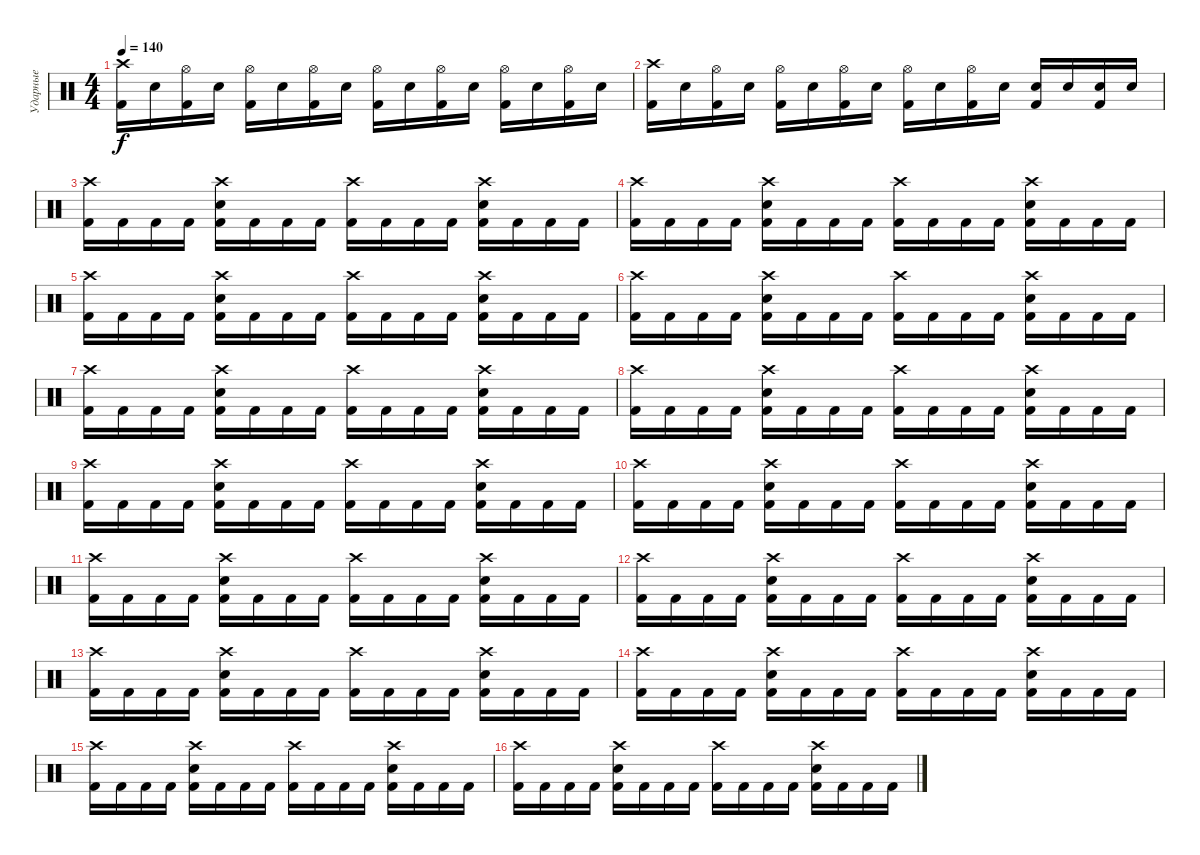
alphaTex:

\track ("Ударные" "Ударные") {mute instrument percussion}
\staff {score}
\articulation defaults
\ts (4 4)
\tempo 140
\clef neutral
\ks c
("Crash high (hit)" "Kick (hit) 2").16{dy f} "Electric Snare (hit)".16 ("Hi-Hat (open)" "Kick (hit) 2").16 "Electric Snare (hit)".16 ("Hi-Hat (open)" "Kick (hit) 2").16 "Electric Snare (hit)".16 ("Hi-Hat (open)" "Kick (hit) 2").16 "Electric Snare (hit)".16 ("Hi-Hat (open)" "Kick (hit) 2").16 "Electric Snare (hit)".16 ("Hi-Hat (open)" "Kick (hit) 2").16 "Electric Snare (hit)".16 ("Hi-Hat (open)" "Kick (hit) 2").16 "Electric Snare (hit)".16 ("Hi-Hat (open)" "Kick (hit) 2").16 "Electric Snare (hit)".16 |
("Crash high (hit)" "Kick (hit) 2").16 "Electric Snare (hit)".16 ("Hi-Hat (open)" "Kick (hit) 2").16 "Electric Snare (hit)".16 ("Hi-Hat (open)" "Kick (hit) 2").16 "Electric Snare (hit)".16 ("Hi-Hat (open)" "Kick (hit) 2").16 "Electric Snare (hit)".16 ("Hi-Hat (open)" "Kick (hit) 2").16 "Electric Snare (hit)".16 ("Hi-Hat (open)" "Kick (hit) 2").16 "Electric Snare (hit)".16 ("Electric Snare (hit)" "Kick (hit) 2").16 "Electric Snare (hit)".16 ("Electric Snare (hit)" "Kick (hit) 2").16 "Electric Snare (hit)".16 |
("Crash high (hit)" "Kick (hit) 2").16 "Kick (hit) 2".16 "Kick (hit) 2".16 "Kick (hit) 2".16 ("Crash high (hit)" "Electric Snare (hit)" "Kick (hit) 2").16 "Kick (hit) 2".16 "Kick (hit) 2".16 "Kick (hit) 2".16 ("Crash high (hit)" "Kick (hit) 2").16 "Kick (hit) 2".16 "Kick (hit) 2".16 "Kick (hit) 2".16 ("Crash high (hit)" "Electric Snare (hit)" "Kick (hit) 2").16 "Kick (hit) 2".16 "Kick (hit) 2".16 "Kick (hit) 2".16 |
("Crash high (hit)" "Kick (hit) 2").16 "Kick (hit) 2".16 "Kick (hit) 2".16 "Kick (hit) 2".16 ("Crash high (hit)" "Electric Snare (hit)" "Kick (hit) 2").16 "Kick (hit) 2".16 "Kick (hit) 2".16 "Kick (hit) 2".16 ("Crash high (hit)" "Kick (hit) 2").16 "Kick (hit) 2".16 "Kick (hit) 2".16 "Kick (hit) 2".16 ("Crash high (hit)" "Electric Snare (hit)" "Kick (hit) 2").16 "Kick (hit) 2".16 "Kick (hit) 2".16 "Kick (hit) 2".16 |
("Crash high (hit)" "Kick (hit) 2").16 "Kick (hit) 2".16 "Kick (hit) 2".16 "Kick (hit) 2".16 ("Crash high (hit)" "Electric Snare (hit)" "Kick (hit) 2").16 "Kick (hit) 2".16 "Kick (hit) 2".16 "Kick (hit) 2".16 ("Crash high (hit)" "Kick (hit) 2").16 "Kick (hit) 2".16 "Kick (hit) 2".16 "Kick (hit) 2".16 ("Crash high (hit)" "Electric Snare (hit)" "Kick (hit) 2").16 "Kick (hit) 2".16 "Kick (hit) 2".16 "Kick (hit) 2".16 |
("Crash high (hit)" "Kick (hit) 2").16 "Kick (hit) 2".16 "Kick (hit) 2".16 "Kick (hit) 2".16 ("Crash high (hit)" "Electric Snare (hit)" "Kick (hit) 2").16 "Kick (hit) 2".16 "Kick (hit) 2".16 "Kick (hit) 2".16 ("Crash high (hit)" "Kick (hit) 2").16 "Kick (hit) 2".16 "Kick (hit) 2".16 "Kick (hit) 2".16 ("Crash high (hit)" "Electric Snare (hit)" "Kick (hit) 2").16 "Kick (hit) 2".16 "Kick (hit) 2".16 "Kick (hit) 2".16 |
("Crash high (hit)" "Kick (hit) 2").16 "Kick (hit) 2".16 "Kick (hit) 2".16 "Kick (hit) 2".16 ("Crash high (hit)" "Electric Snare (hit)" "Kick (hit) 2").16 "Kick (hit) 2".16 "Kick (hit) 2".16 "Kick (hit) 2".16 ("Crash high (hit)" "Kick (hit) 2").16 "Kick (hit) 2".16 "Kick (hit) 2".16 "Kick (hit) 2".16 ("Crash high (hit)" "Electric Snare (hit)" "Kick (hit) 2").16 "Kick (hit) 2".16 "Kick (hit) 2".16 "Kick (hit) 2".16 |
("Crash high (hit)" "Kick (hit) 2").16 "Kick (hit) 2".16 "Kick (hit) 2".16 "Kick (hit) 2".16 ("Crash high (hit)" "Electric Snare (hit)" "Kick (hit) 2").16 "Kick (hit) 2".16 "Kick (hit) 2".16 "Kick (hit) 2".16 ("Crash high (hit)" "Kick (hit) 2").16 "Kick (hit) 2".16 "Kick (hit) 2".16 "Kick (hit) 2".16 ("Crash high (hit)" "Electric Snare (hit)" "Kick (hit) 2").16 "Kick (hit) 2".16 "Kick (hit) 2".16 "Kick (hit) 2".16 |
("Crash high (hit)" "Kick (hit) 2").16 "Kick (hit) 2".16 "Kick (hit) 2".16 "Kick (hit) 2".16 ("Crash high (hit)" "Electric Snare (hit)" "Kick (hit) 2").16 "Kick (hit) 2".16 "Kick (hit) 2".16 "Kick (hit) 2".16 ("Crash high (hit)" "Kick (hit) 2").16 "Kick (hit) 2".16 "Kick (hit) 2".16 "Kick (hit) 2".16 ("Crash high (hit)" "Electric Snare (hit)" "Kick (hit) 2").16 "Kick (hit) 2".16 "Kick (hit) 2".16 "Kick (hit) 2".16 |
("Crash high (hit)" "Kick (hit) 2").16 "Kick (hit) 2".16 "Kick (hit) 2".16 "Kick (hit) 2".16 ("Crash high (hit)" "Electric Snare (hit)" "Kick (hit) 2").16 "Kick (hit) 2".16 "Kick (hit) 2".16 "Kick (hit) 2".16 ("Crash high (hit)" "Kick (hit) 2").16 "Kick (hit) 2".16 "Kick (hit) 2".16 "Kick (hit) 2".16 ("Crash high (hit)" "Electric Snare (hit)" "Kick (hit) 2").16 "Kick (hit) 2".16 "Kick (hit) 2".16 "Kick (hit) 2".16 |
("Crash high (hit)" "Kick (hit) 2").16 "Kick (hit) 2".16 "Kick (hit) 2".16 "Kick (hit) 2".16 ("Crash high (hit)" "Electric Snare (hit)" "Kick (hit) 2").16 "Kick (hit) 2".16 "Kick (hit) 2".16 "Kick (hit) 2".16 ("Crash high (hit)" "Kick (hit) 2").16 "Kick (hit) 2".16 "Kick (hit) 2".16 "Kick (hit) 2".16 ("Crash high (hit)" "Electric Snare (hit)" "Kick (hit) 2").16 "Kick (hit) 2".16 "Kick (hit) 2".16 "Kick (hit) 2".16 |
("Crash high (hit)" "Kick (hit) 2").16 "Kick (hit) 2".16 "Kick (hit) 2".16 "Kick (hit) 2".16 ("Crash high (hit)" "Electric Snare (hit)" "Kick (hit) 2").16 "Kick (hit) 2".16 "Kick (hit) 2".16 "Kick (hit) 2".16 ("Crash high (hit)" "Kick (hit) 2").16 "Kick (hit) 2".16 "Kick (hit) 2".16 "Kick (hit) 2".16 ("Crash high (hit)" "Electric Snare (hit)" "Kick (hit) 2").16 "Kick (hit) 2".16 "Kick (hit) 2".16 "Kick (hit) 2".16 |
("Crash high (hit)" "Kick (hit) 2").16 "Kick (hit) 2".16 "Kick (hit) 2".16 "Kick (hit) 2".16 ("Crash high (hit)" "Electric Snare (hit)" "Kick (hit) 2").16 "Kick (hit) 2".16 "Kick (hit) 2".16 "Kick (hit) 2".16 ("Crash high (hit)" "Kick (hit) 2").16 "Kick (hit) 2".16 "Kick (hit) 2".16 "Kick (hit) 2".16 ("Crash high (hit)" "Electric Snare (hit)" "Kick (hit) 2").16 "Kick (hit) 2".16 "Kick (hit) 2".16 "Kick (hit) 2".16 |
("Crash high (hit)" "Kick (hit) 2").16 "Kick (hit) 2".16 "Kick (hit) 2".16 "Kick (hit) 2".16 ("Crash high (hit)" "Electric Snare (hit)" "Kick (hit) 2").16 "Kick (hit) 2".16 "Kick (hit) 2".16 "Kick (hit) 2".16 ("Crash high (hit)" "Kick (hit) 2").16 "Kick (hit) 2".16 "Kick (hit) 2".16 "Kick (hit) 2".16 ("Crash high (hit)" "Electric Snare (hit)" "Kick (hit) 2").16 "Kick (hit) 2".16 "Kick (hit) 2".16 "Kick (hit) 2".16 |
("Crash high (hit)" "Kick (hit) 2").16 "Kick (hit) 2".16 "Kick (hit) 2".16 "Kick (hit) 2".16 ("Crash high (hit)" "Electric Snare (hit)" "Kick (hit) 2").16 "Kick (hit) 2".16 "Kick (hit) 2".16 "Kick (hit) 2".16 ("Crash high (hit)" "Kick (hit) 2").16 "Kick (hit) 2".16 "Kick (hit) 2".16 "Kick (hit) 2".16 ("Crash high (hit)" "Electric Snare (hit)" "Kick (hit) 2").16 "Kick (hit) 2".16 "Kick (hit) 2".16 "Kick (hit) 2".16 |
("Crash high (hit)" "Kick (hit) 2").16 "Kick (hit) 2".16 "Kick (hit) 2".16 "Kick (hit) 2".16 ("Crash high (hit)" "Electric Snare (hit)" "Kick (hit) 2").16 "Kick (hit) 2".16 "Kick (hit) 2".16 "Kick (hit) 2".16 ("Crash high (hit)" "Kick (hit) 2").16 "Kick (hit) 2".16 "Kick (hit) 2".16 "Kick (hit) 2".16 ("Crash high (hit)" "Electric Snare (hit)" "Kick (hit) 2").16 "Kick (hit) 2".16 "Kick (hit) 2".16 "Kick (hit) 2".16
